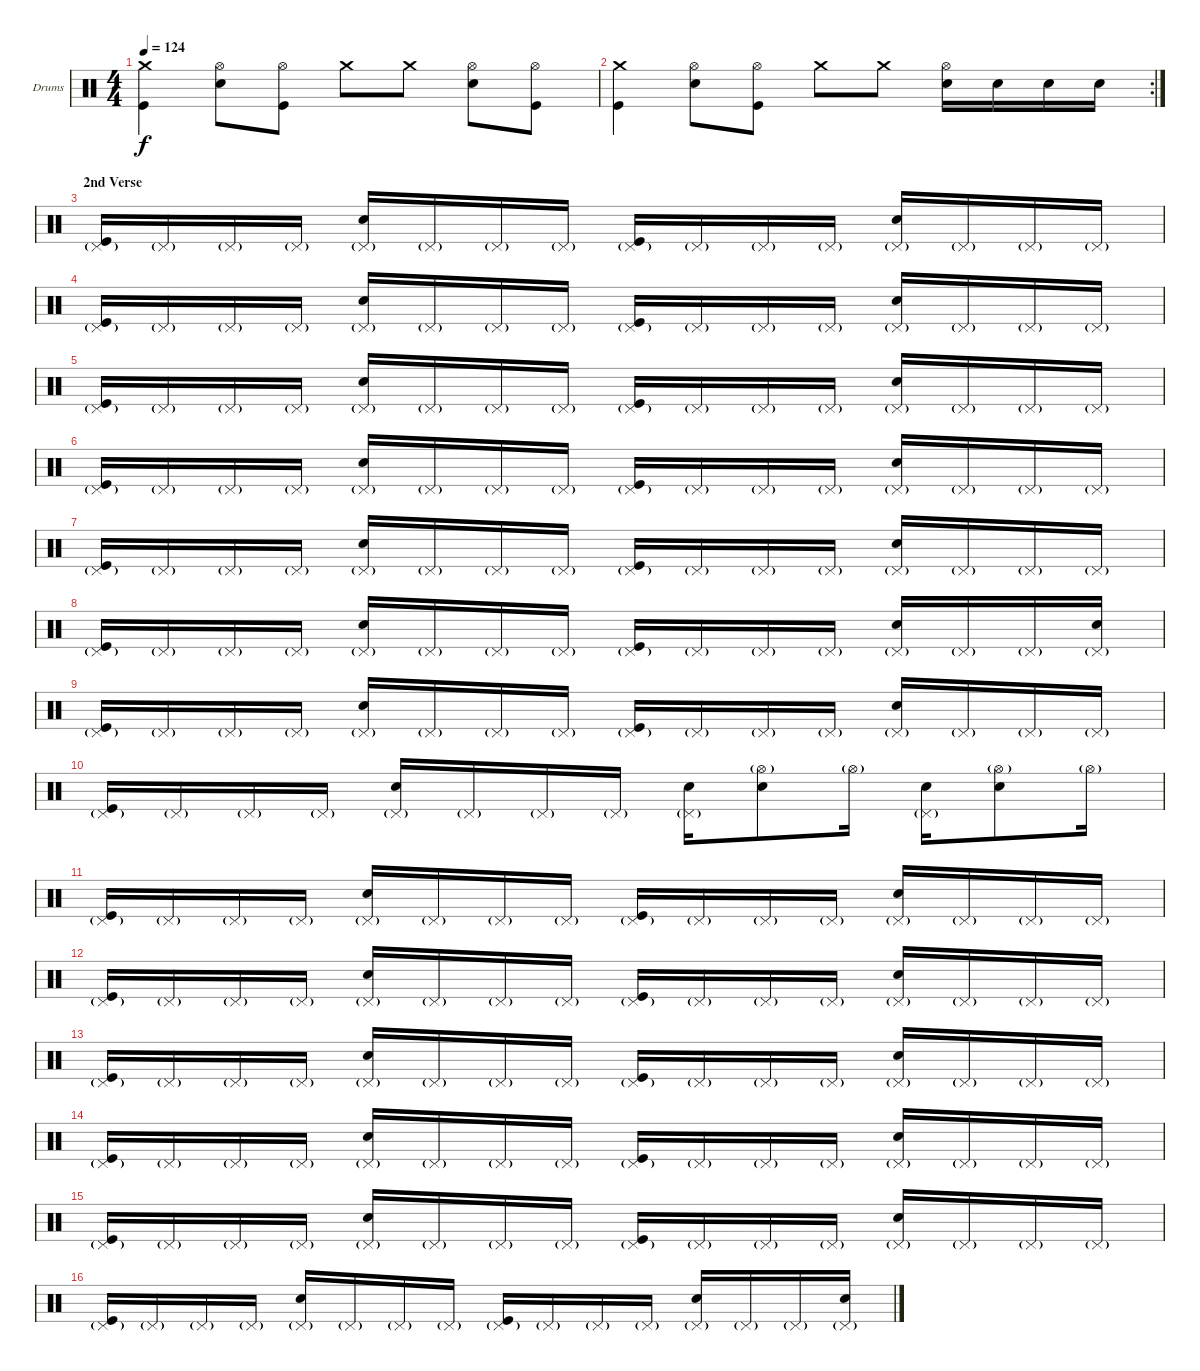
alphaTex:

\bracketExtendMode groupsimilarinstruments
\firstSystemTrackNameOrientation horizontal
\otherSystemsTrackNameOrientation horizontal
\track ("Drumkit" "Drums") {instrument percussion}
\staff {score}
\articulation defaults
\ts (4 4)
\tempo 124
\clef neutral
\ks c
("Kick (hit)" "Crash medium (hit)").4{dy f} ("Snare (hit) 2" "Hi-Hat (open)").8 ("Kick (hit)" "Hi-Hat (open)").8 "Crash medium (hit)".8 "Crash medium (hit)".8 ("Snare (hit) 2" "Hi-Hat (open)").8 ("Kick (hit)" "Hi-Hat (open)").8 |
\rc 2
("Kick (hit)" "Crash medium (hit)").4 ("Snare (hit) 2" "Hi-Hat (open)").8 ("Kick (hit)" "Hi-Hat (open)").8 "Crash medium (hit)".8 "Crash medium (hit)".8 ("Snare (hit) 2" "Hi-Hat (open)").16 "Snare (hit) 2".16 "Snare (hit) 2".16 "Snare (hit) 2".16 |
\section ("" "2nd Verse")
("Kick (hit)" "Pedal Hi-Hat (hit)"{g}).16 "Pedal Hi-Hat (hit)"{g}.16 "Pedal Hi-Hat (hit)"{g}.16 "Pedal Hi-Hat (hit)"{g}.16 ("Snare (hit) 2" "Pedal Hi-Hat (hit)"{g}).16 "Pedal Hi-Hat (hit)"{g}.16 "Pedal Hi-Hat (hit)"{g}.16 "Pedal Hi-Hat (hit)"{g}.16 ("Kick (hit)" "Pedal Hi-Hat (hit)"{g}).16 "Pedal Hi-Hat (hit)"{g}.16 "Pedal Hi-Hat (hit)"{g}.16 "Pedal Hi-Hat (hit)"{g}.16 ("Snare (hit) 2" "Pedal Hi-Hat (hit)"{g}).16 "Pedal Hi-Hat (hit)"{g}.16 "Pedal Hi-Hat (hit)"{g}.16 "Pedal Hi-Hat (hit)"{g}.16 |
("Kick (hit)" "Pedal Hi-Hat (hit)"{g}).16 "Pedal Hi-Hat (hit)"{g}.16 "Pedal Hi-Hat (hit)"{g}.16 "Pedal Hi-Hat (hit)"{g}.16 ("Snare (hit) 2" "Pedal Hi-Hat (hit)"{g}).16 "Pedal Hi-Hat (hit)"{g}.16 "Pedal Hi-Hat (hit)"{g}.16 "Pedal Hi-Hat (hit)"{g}.16 ("Kick (hit)" "Pedal Hi-Hat (hit)"{g}).16 "Pedal Hi-Hat (hit)"{g}.16 "Pedal Hi-Hat (hit)"{g}.16 "Pedal Hi-Hat (hit)"{g}.16 ("Snare (hit) 2" "Pedal Hi-Hat (hit)"{g}).16 "Pedal Hi-Hat (hit)"{g}.16 "Pedal Hi-Hat (hit)"{g}.16 "Pedal Hi-Hat (hit)"{g}.16 |
("Kick (hit)" "Pedal Hi-Hat (hit)"{g}).16 "Pedal Hi-Hat (hit)"{g}.16 "Pedal Hi-Hat (hit)"{g}.16 "Pedal Hi-Hat (hit)"{g}.16 ("Snare (hit) 2" "Pedal Hi-Hat (hit)"{g}).16 "Pedal Hi-Hat (hit)"{g}.16 "Pedal Hi-Hat (hit)"{g}.16 "Pedal Hi-Hat (hit)"{g}.16 ("Kick (hit)" "Pedal Hi-Hat (hit)"{g}).16 "Pedal Hi-Hat (hit)"{g}.16 "Pedal Hi-Hat (hit)"{g}.16 "Pedal Hi-Hat (hit)"{g}.16 ("Snare (hit) 2" "Pedal Hi-Hat (hit)"{g}).16 "Pedal Hi-Hat (hit)"{g}.16 "Pedal Hi-Hat (hit)"{g}.16 "Pedal Hi-Hat (hit)"{g}.16 |
("Kick (hit)" "Pedal Hi-Hat (hit)"{g}).16 "Pedal Hi-Hat (hit)"{g}.16 "Pedal Hi-Hat (hit)"{g}.16 "Pedal Hi-Hat (hit)"{g}.16 ("Snare (hit) 2" "Pedal Hi-Hat (hit)"{g}).16 "Pedal Hi-Hat (hit)"{g}.16 "Pedal Hi-Hat (hit)"{g}.16 "Pedal Hi-Hat (hit)"{g}.16 ("Kick (hit)" "Pedal Hi-Hat (hit)"{g}).16 "Pedal Hi-Hat (hit)"{g}.16 "Pedal Hi-Hat (hit)"{g}.16 "Pedal Hi-Hat (hit)"{g}.16 ("Snare (hit) 2" "Pedal Hi-Hat (hit)"{g}).16 "Pedal Hi-Hat (hit)"{g}.16 "Pedal Hi-Hat (hit)"{g}.16 "Pedal Hi-Hat (hit)"{g}.16 |
("Kick (hit)" "Pedal Hi-Hat (hit)"{g}).16 "Pedal Hi-Hat (hit)"{g}.16 "Pedal Hi-Hat (hit)"{g}.16 "Pedal Hi-Hat (hit)"{g}.16 ("Snare (hit) 2" "Pedal Hi-Hat (hit)"{g}).16 "Pedal Hi-Hat (hit)"{g}.16 "Pedal Hi-Hat (hit)"{g}.16 "Pedal Hi-Hat (hit)"{g}.16 ("Kick (hit)" "Pedal Hi-Hat (hit)"{g}).16 "Pedal Hi-Hat (hit)"{g}.16 "Pedal Hi-Hat (hit)"{g}.16 "Pedal Hi-Hat (hit)"{g}.16 ("Snare (hit) 2" "Pedal Hi-Hat (hit)"{g}).16 "Pedal Hi-Hat (hit)"{g}.16 "Pedal Hi-Hat (hit)"{g}.16 "Pedal Hi-Hat (hit)"{g}.16 |
("Kick (hit)" "Pedal Hi-Hat (hit)"{g}).16 "Pedal Hi-Hat (hit)"{g}.16 "Pedal Hi-Hat (hit)"{g}.16 "Pedal Hi-Hat (hit)"{g}.16 ("Snare (hit) 2" "Pedal Hi-Hat (hit)"{g}).16 "Pedal Hi-Hat (hit)"{g}.16 "Pedal Hi-Hat (hit)"{g}.16 "Pedal Hi-Hat (hit)"{g}.16 ("Kick (hit)" "Pedal Hi-Hat (hit)"{g}).16 "Pedal Hi-Hat (hit)"{g}.16 "Pedal Hi-Hat (hit)"{g}.16 "Pedal Hi-Hat (hit)"{g}.16 ("Snare (hit) 2" "Pedal Hi-Hat (hit)"{g}).16 "Pedal Hi-Hat (hit)"{g}.16 "Pedal Hi-Hat (hit)"{g}.16 ("Snare (hit) 2" "Pedal Hi-Hat (hit)"{g}).16 |
("Kick (hit)" "Pedal Hi-Hat (hit)"{g}).16 "Pedal Hi-Hat (hit)"{g}.16 "Pedal Hi-Hat (hit)"{g}.16 "Pedal Hi-Hat (hit)"{g}.16 ("Snare (hit) 2" "Pedal Hi-Hat (hit)"{g}).16 "Pedal Hi-Hat (hit)"{g}.16 "Pedal Hi-Hat (hit)"{g}.16 "Pedal Hi-Hat (hit)"{g}.16 ("Kick (hit)" "Pedal Hi-Hat (hit)"{g}).16 "Pedal Hi-Hat (hit)"{g}.16 "Pedal Hi-Hat (hit)"{g}.16 "Pedal Hi-Hat (hit)"{g}.16 ("Snare (hit) 2" "Pedal Hi-Hat (hit)"{g}).16 "Pedal Hi-Hat (hit)"{g}.16 "Pedal Hi-Hat (hit)"{g}.16 "Pedal Hi-Hat (hit)"{g}.16 |
("Kick (hit)" "Pedal Hi-Hat (hit)"{g}).16 "Pedal Hi-Hat (hit)"{g}.16 "Pedal Hi-Hat (hit)"{g}.16 "Pedal Hi-Hat (hit)"{g}.16 ("Snare (hit) 2" "Pedal Hi-Hat (hit)"{g}).16 "Pedal Hi-Hat (hit)"{g}.16 "Pedal Hi-Hat (hit)"{g}.16 "Pedal Hi-Hat (hit)"{g}.16 ("Snare (hit) 2" "Pedal Hi-Hat (hit)"{g}).16 ("Snare (hit) 2" "Hi-Hat (open)"{g}).8 "Hi-Hat (open)"{g}.16 ("Snare (hit) 2" "Pedal Hi-Hat (hit)"{g}).16 ("Snare (hit) 2" "Hi-Hat (open)"{g}).8 "Hi-Hat (open)"{g}.16 |
("Kick (hit)" "Pedal Hi-Hat (hit)"{g}).16 "Pedal Hi-Hat (hit)"{g}.16 "Pedal Hi-Hat (hit)"{g}.16 "Pedal Hi-Hat (hit)"{g}.16 ("Snare (hit) 2" "Pedal Hi-Hat (hit)"{g}).16 "Pedal Hi-Hat (hit)"{g}.16 "Pedal Hi-Hat (hit)"{g}.16 "Pedal Hi-Hat (hit)"{g}.16 ("Kick (hit)" "Pedal Hi-Hat (hit)"{g}).16 "Pedal Hi-Hat (hit)"{g}.16 "Pedal Hi-Hat (hit)"{g}.16 "Pedal Hi-Hat (hit)"{g}.16 ("Snare (hit) 2" "Pedal Hi-Hat (hit)"{g}).16 "Pedal Hi-Hat (hit)"{g}.16 "Pedal Hi-Hat (hit)"{g}.16 "Pedal Hi-Hat (hit)"{g}.16 |
("Kick (hit)" "Pedal Hi-Hat (hit)"{g}).16 "Pedal Hi-Hat (hit)"{g}.16 "Pedal Hi-Hat (hit)"{g}.16 "Pedal Hi-Hat (hit)"{g}.16 ("Snare (hit) 2" "Pedal Hi-Hat (hit)"{g}).16 "Pedal Hi-Hat (hit)"{g}.16 "Pedal Hi-Hat (hit)"{g}.16 "Pedal Hi-Hat (hit)"{g}.16 ("Kick (hit)" "Pedal Hi-Hat (hit)"{g}).16 "Pedal Hi-Hat (hit)"{g}.16 "Pedal Hi-Hat (hit)"{g}.16 "Pedal Hi-Hat (hit)"{g}.16 ("Snare (hit) 2" "Pedal Hi-Hat (hit)"{g}).16 "Pedal Hi-Hat (hit)"{g}.16 "Pedal Hi-Hat (hit)"{g}.16 "Pedal Hi-Hat (hit)"{g}.16 |
("Kick (hit)" "Pedal Hi-Hat (hit)"{g}).16 "Pedal Hi-Hat (hit)"{g}.16 "Pedal Hi-Hat (hit)"{g}.16 "Pedal Hi-Hat (hit)"{g}.16 ("Snare (hit) 2" "Pedal Hi-Hat (hit)"{g}).16 "Pedal Hi-Hat (hit)"{g}.16 "Pedal Hi-Hat (hit)"{g}.16 "Pedal Hi-Hat (hit)"{g}.16 ("Kick (hit)" "Pedal Hi-Hat (hit)"{g}).16 "Pedal Hi-Hat (hit)"{g}.16 "Pedal Hi-Hat (hit)"{g}.16 "Pedal Hi-Hat (hit)"{g}.16 ("Snare (hit) 2" "Pedal Hi-Hat (hit)"{g}).16 "Pedal Hi-Hat (hit)"{g}.16 "Pedal Hi-Hat (hit)"{g}.16 "Pedal Hi-Hat (hit)"{g}.16 |
("Kick (hit)" "Pedal Hi-Hat (hit)"{g}).16 "Pedal Hi-Hat (hit)"{g}.16 "Pedal Hi-Hat (hit)"{g}.16 "Pedal Hi-Hat (hit)"{g}.16 ("Snare (hit) 2" "Pedal Hi-Hat (hit)"{g}).16 "Pedal Hi-Hat (hit)"{g}.16 "Pedal Hi-Hat (hit)"{g}.16 "Pedal Hi-Hat (hit)"{g}.16 ("Kick (hit)" "Pedal Hi-Hat (hit)"{g}).16 "Pedal Hi-Hat (hit)"{g}.16 "Pedal Hi-Hat (hit)"{g}.16 "Pedal Hi-Hat (hit)"{g}.16 ("Snare (hit) 2" "Pedal Hi-Hat (hit)"{g}).16 "Pedal Hi-Hat (hit)"{g}.16 "Pedal Hi-Hat (hit)"{g}.16 "Pedal Hi-Hat (hit)"{g}.16 |
("Kick (hit)" "Pedal Hi-Hat (hit)"{g}).16 "Pedal Hi-Hat (hit)"{g}.16 "Pedal Hi-Hat (hit)"{g}.16 "Pedal Hi-Hat (hit)"{g}.16 ("Snare (hit) 2" "Pedal Hi-Hat (hit)"{g}).16 "Pedal Hi-Hat (hit)"{g}.16 "Pedal Hi-Hat (hit)"{g}.16 "Pedal Hi-Hat (hit)"{g}.16 ("Kick (hit)" "Pedal Hi-Hat (hit)"{g}).16 "Pedal Hi-Hat (hit)"{g}.16 "Pedal Hi-Hat (hit)"{g}.16 "Pedal Hi-Hat (hit)"{g}.16 ("Snare (hit) 2" "Pedal Hi-Hat (hit)"{g}).16 "Pedal Hi-Hat (hit)"{g}.16 "Pedal Hi-Hat (hit)"{g}.16 "Pedal Hi-Hat (hit)"{g}.16 |
("Kick (hit)" "Pedal Hi-Hat (hit)"{g}).16 "Pedal Hi-Hat (hit)"{g}.16 "Pedal Hi-Hat (hit)"{g}.16 "Pedal Hi-Hat (hit)"{g}.16 ("Snare (hit) 2" "Pedal Hi-Hat (hit)"{g}).16 "Pedal Hi-Hat (hit)"{g}.16 "Pedal Hi-Hat (hit)"{g}.16 "Pedal Hi-Hat (hit)"{g}.16 ("Kick (hit)" "Pedal Hi-Hat (hit)"{g}).16 "Pedal Hi-Hat (hit)"{g}.16 "Pedal Hi-Hat (hit)"{g}.16 "Pedal Hi-Hat (hit)"{g}.16 ("Snare (hit) 2" "Pedal Hi-Hat (hit)"{g}).16 "Pedal Hi-Hat (hit)"{g}.16 "Pedal Hi-Hat (hit)"{g}.16 ("Snare (hit) 2" "Pedal Hi-Hat (hit)"{g}).16
